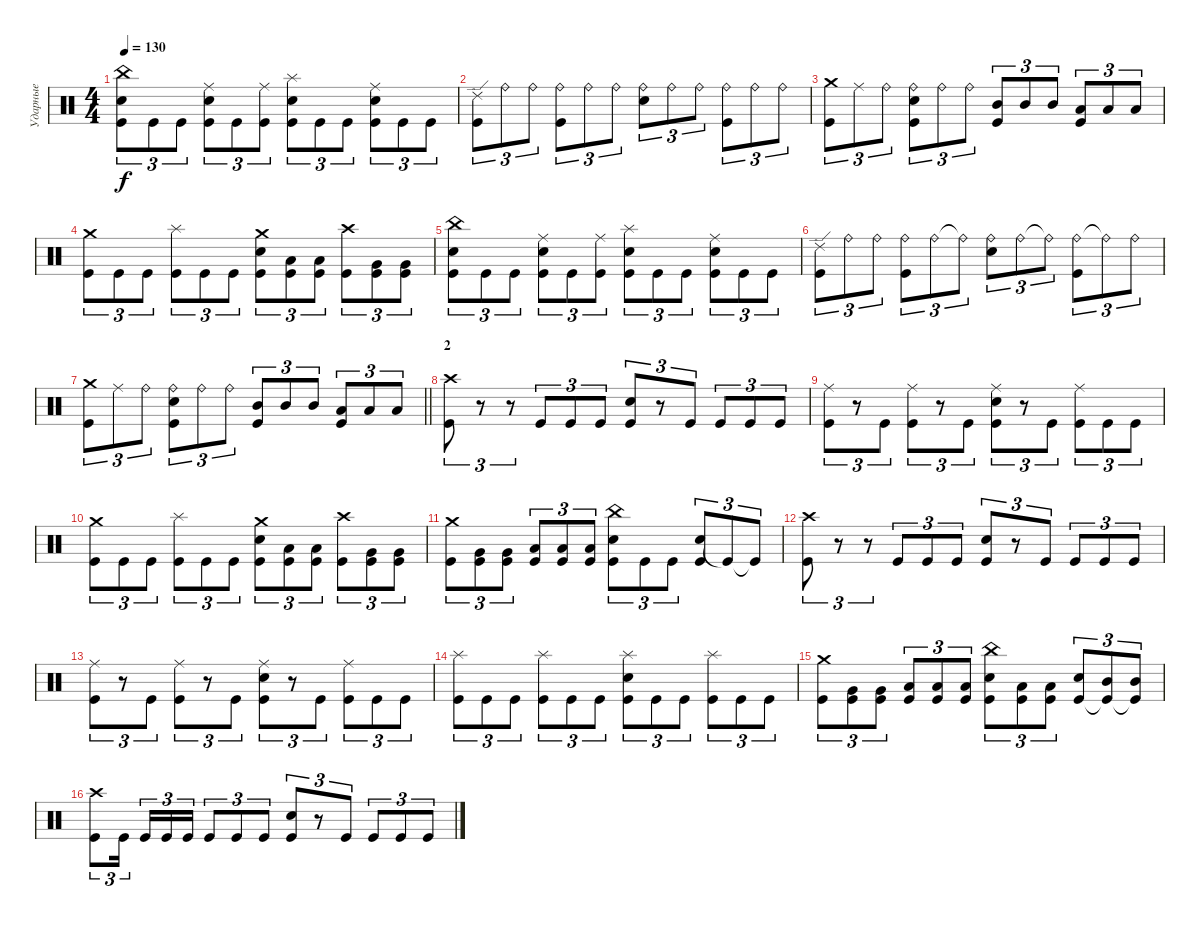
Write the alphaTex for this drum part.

\track ("Ударные" "Ударные") {instrument percussion}
\staff {score}
\articulation defaults
\ts (4 4)
\tempo 130
\clef neutral
\ks c
("China (hit)" "Electric Snare (hit)" "Kick (hit)").8{tu (3 2) dy f} "Kick (hit)".8{tu (3 2)} "Kick (hit)".8{tu (3 2)} ("Ride (middle)" "Electric Snare (hit)" "Kick (hit)").8{tu (3 2)} "Kick (hit)".8{tu (3 2)} ("Ride (middle)" "Kick (hit)").8{tu (3 2)} ("Splash (hit)" "Electric Snare (hit)" "Kick (hit)").8{tu (3 2)} "Kick (hit)".8{tu (3 2)} "Kick (hit)".8{tu (3 2)} ("Ride (middle)" "Electric Snare (hit)" "Kick (hit)").8{tu (3 2)} "Kick (hit)".8{tu (3 2)} "Kick (hit)".8{tu (3 2)} |
("Ride (edge) 2" "Kick (hit)").8{tu (3 2)} "Ride (bell)".8{tu (3 2)} "Ride (bell)".8{tu (3 2)} ("Ride (bell)" "Kick (hit)").8{tu (3 2)} "Ride (bell)".8{tu (3 2)} "Ride (bell)".8{tu (3 2)} ("Ride (bell)" "Electric Snare (hit)").8{tu (3 2)} "Ride (bell)".8{tu (3 2)} "Ride (bell)".8{tu (3 2)} ("Ride (bell)" "Kick (hit)").8{tu (3 2)} "Ride (bell)".8{tu (3 2)} "Ride (bell)".8{tu (3 2)} |
("Crash medium (hit)" "Kick (hit)").8{tu (3 2)} "Ride (middle)".8{tu (3 2)} "Ride (bell)".8{tu (3 2)} ("Ride (bell)" "Electric Snare (hit)" "Kick (hit)").8{tu (3 2)} "Ride (bell)".8{tu (3 2)} "Ride (bell)".8{tu (3 2)} ("Mid Tom (hit)" "Kick (hit)").8{tu (3 2)} "Mid Tom (hit)".8{tu (3 2)} "Mid Tom (hit)".8{tu (3 2)} ("Low Tom (hit)" "Kick (hit)").8{tu (3 2)} "Low Tom (hit)".8{tu (3 2)} "Low Tom (hit)".8{tu (3 2)} |
("Crash medium (hit)" "Kick (hit)").8{tu (3 2)} "Kick (hit)".8{tu (3 2)} "Kick (hit)".8{tu (3 2)} ("Splash (hit)" "Kick (hit)").8{tu (3 2)} "Kick (hit)".8{tu (3 2)} "Kick (hit)".8{tu (3 2)} ("Crash medium (hit)" "Electric Snare (hit)" "Kick (hit)").8{tu (3 2)} ("Low Tom (hit)" "Kick (hit)").8{tu (3 2)} ("Low Tom (hit)" "Kick (hit)").8{tu (3 2)} ("Crash high (hit)" "Kick (hit)").8{tu (3 2)} ("Very Low Tom (hit)" "Kick (hit)").8{tu (3 2)} ("Very Low Tom (hit)" "Kick (hit)").8{tu (3 2)} |
("China (hit)" "Electric Snare (hit)" "Kick (hit)").8{tu (3 2)} "Kick (hit)".8{tu (3 2)} "Kick (hit)".8{tu (3 2)} ("Ride (middle)" "Electric Snare (hit)" "Kick (hit)").8{tu (3 2)} "Kick (hit)".8{tu (3 2)} ("Ride (middle)" "Kick (hit)").8{tu (3 2)} ("Splash (hit)" "Electric Snare (hit)" "Kick (hit)").8{tu (3 2)} "Kick (hit)".8{tu (3 2)} "Kick (hit)".8{tu (3 2)} ("Ride (middle)" "Electric Snare (hit)" "Kick (hit)").8{tu (3 2)} "Kick (hit)".8{tu (3 2)} "Kick (hit)".8{tu (3 2)} |
("Ride (edge) 2" "Kick (hit)").8{tu (3 2)} "Ride (bell)".8{tu (3 2)} "Ride (bell)".8{tu (3 2)} ("Ride (bell)" "Kick (hit)").8{tu (3 2)} "Ride (bell)".8{tu (3 2)} "Ride (bell)"{t}.8{tu (3 2)} ("Ride (bell)" "Electric Snare (hit)").8{tu (3 2)} "Ride (bell)".8{tu (3 2)} "Ride (bell)"{t}.8{tu (3 2)} ("Ride (bell)" "Kick (hit)").8{tu (3 2)} "Ride (bell)"{t}.8{tu (3 2)} "Ride (bell)".8{tu (3 2)} |
\barLineRight lightlight
("Crash medium (hit)" "Kick (hit)").8{tu (3 2)} "Ride (middle)".8{tu (3 2)} "Ride (bell)".8{tu (3 2)} ("Ride (bell)" "Electric Snare (hit)" "Kick (hit)").8{tu (3 2)} "Ride (bell)".8{tu (3 2)} "Ride (bell)".8{tu (3 2)} ("Mid Tom (hit)" "Kick (hit)").8{tu (3 2)} "Mid Tom (hit)".8{tu (3 2)} "Mid Tom (hit)".8{tu (3 2)} ("Low Tom (hit)" "Kick (hit)").8{tu (3 2)} "Low Tom (hit)".8{tu (3 2)} "Low Tom (hit)".8{tu (3 2)} |
\section ("" "2")
("Crash high (hit)" "Kick (hit)").8{tu (3 2)} r.8{tu (3 2)} r.8{tu (3 2)} "Kick (hit)".8{tu (3 2)} "Kick (hit)".8{tu (3 2)} "Kick (hit)".8{tu (3 2)} ("Electric Snare (hit)" "Kick (hit)").8{tu (3 2)} r.8{tu (3 2)} "Kick (hit)".8{tu (3 2)} "Kick (hit)".8{tu (3 2)} "Kick (hit)".8{tu (3 2)} "Kick (hit)".8{tu (3 2)} |
("Ride (middle)" "Kick (hit)").8{tu (3 2)} r.8{tu (3 2)} "Kick (hit)".8{tu (3 2)} ("Ride (middle)" "Kick (hit)").8{tu (3 2)} r.8{tu (3 2)} "Kick (hit)".8{tu (3 2)} ("Ride (middle)" "Electric Snare (hit)" "Kick (hit)").8{tu (3 2)} r.8{tu (3 2)} "Kick (hit)".8{tu (3 2)} ("Ride (middle)" "Kick (hit)").8{tu (3 2)} "Kick (hit)".8{tu (3 2)} "Kick (hit)".8{tu (3 2)} |
("Crash medium (hit)" "Kick (hit)").8{tu (3 2)} "Kick (hit)".8{tu (3 2)} "Kick (hit)".8{tu (3 2)} ("Splash (hit)" "Kick (hit)").8{tu (3 2)} "Kick (hit)".8{tu (3 2)} "Kick (hit)".8{tu (3 2)} ("Crash medium (hit)" "Electric Snare (hit)" "Kick (hit)").8{tu (3 2)} ("Low Tom (hit)" "Kick (hit)").8{tu (3 2)} ("Low Tom (hit)" "Kick (hit)").8{tu (3 2)} ("Crash high (hit)" "Kick (hit)").8{tu (3 2)} ("Very Low Tom (hit)" "Kick (hit)").8{tu (3 2)} ("Very Low Tom (hit)" "Kick (hit)").8{tu (3 2)} |
("Crash medium (hit)" "Kick (hit)").8{tu (3 2)} ("Very Low Tom (hit)" "Kick (hit)").8{tu (3 2)} ("Very Low Tom (hit)" "Kick (hit)").8{tu (3 2)} ("Low Floor Tom (hit)" "Kick (hit)").8{tu (3 2)} ("Low Floor Tom (hit)" "Kick (hit)").8{tu (3 2)} ("Low Floor Tom (hit)" "Kick (hit)").8{tu (3 2)} ("China (hit)" "Electric Snare (hit)" "Kick (hit)").8{tu (3 2)} "Kick (hit)".8{tu (3 2)} "Kick (hit)".8{tu (3 2)} ("Electric Snare (hit)" "Kick (hit)").8{tu (3 2)} "Kick (hit)"{t}.8{tu (3 2)} "Kick (hit)"{t}.8{tu (3 2)} |
("Crash high (hit)" "Kick (hit)").8{tu (3 2)} r.8{tu (3 2)} r.8{tu (3 2)} "Kick (hit)".8{tu (3 2)} "Kick (hit)".8{tu (3 2)} "Kick (hit)".8{tu (3 2)} ("Electric Snare (hit)" "Kick (hit)").8{tu (3 2)} r.8{tu (3 2)} "Kick (hit)".8{tu (3 2)} "Kick (hit)".8{tu (3 2)} "Kick (hit)".8{tu (3 2)} "Kick (hit)".8{tu (3 2)} |
("Ride (middle)" "Kick (hit)").8{tu (3 2)} r.8{tu (3 2)} "Kick (hit)".8{tu (3 2)} ("Ride (middle)" "Kick (hit)").8{tu (3 2)} r.8{tu (3 2)} "Kick (hit)".8{tu (3 2)} ("Ride (middle)" "Electric Snare (hit)" "Kick (hit)").8{tu (3 2)} r.8{tu (3 2)} "Kick (hit)".8{tu (3 2)} ("Ride (middle)" "Kick (hit)").8{tu (3 2)} "Kick (hit)".8{tu (3 2)} "Kick (hit)".8{tu (3 2)} |
("Splash (hit)" "Kick (hit)").8{tu (3 2)} "Kick (hit)".8{tu (3 2)} "Kick (hit)".8{tu (3 2)} ("Splash (hit)" "Kick (hit)").8{tu (3 2)} "Kick (hit)".8{tu (3 2)} "Kick (hit)".8{tu (3 2)} ("Splash (hit)" "Electric Snare (hit)" "Kick (hit)").8{tu (3 2)} "Kick (hit)".8{tu (3 2)} "Kick (hit)".8{tu (3 2)} ("Splash (hit)" "Kick (hit)").8{tu (3 2)} "Kick (hit)".8{tu (3 2)} "Kick (hit)".8{tu (3 2)} |
("Crash medium (hit)" "Kick (hit)").8{tu (3 2)} ("Very Low Tom (hit)" "Kick (hit)").8{tu (3 2)} ("Very Low Tom (hit)" "Kick (hit)").8{tu (3 2)} ("Low Floor Tom (hit)" "Kick (hit)").8{tu (3 2)} ("Low Floor Tom (hit)" "Kick (hit)").8{tu (3 2)} ("Low Floor Tom (hit)" "Kick (hit)").8{tu (3 2)} ("China (hit)" "Electric Snare (hit)" "Kick (hit)").8{tu (3 2)} ("Low Tom (hit)" "Kick (hit)").8{tu (3 2)} ("Low Tom (hit)" "Kick (hit)").8{tu (3 2)} ("Electric Snare (hit)" "Kick (hit)").8{tu (3 2)} ("Mid Tom (hit)" "Kick (hit)"{t}).8{tu (3 2)} ("Mid Tom (hit)" "Kick (hit)"{t}).8{tu (3 2)} |
("Crash high (hit)" "Kick (hit)").8{tu (3 2)} "Kick (hit)".16{tu (3 2) beam splitsecondary} "Kick (hit)".16{tu (3 2)} "Kick (hit)".16{tu (3 2)} "Kick (hit)".16{tu (3 2)} "Kick (hit)".8{tu (3 2)} "Kick (hit)".8{tu (3 2)} "Kick (hit)".8{tu (3 2)} ("Electric Snare (hit)" "Kick (hit)").8{tu (3 2)} r.8{tu (3 2)} "Kick (hit)".8{tu (3 2)} "Kick (hit)".8{tu (3 2)} "Kick (hit)".8{tu (3 2)} "Kick (hit)".8{tu (3 2)}
